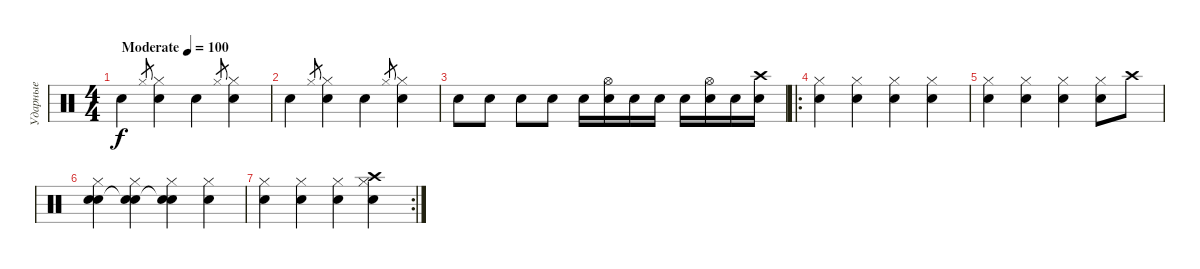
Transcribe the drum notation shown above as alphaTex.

\track ("Ударные" "Ударные") {instrument percussion}
\staff {score}
\articulation defaults
\ts (4 4)
\tempo (100 "Moderate")
\clef neutral
\ks c "Snare (hit) 2".4{dy f} "Hi-Hat (closed)".8{gr}
("Electric Snare (hit)" "Hi-Hat (closed)").4 "Snare (hit) 2".4 "Hi-Hat (closed)".8{gr} ("Electric Snare (hit)" "Hi-Hat (closed)").4 |
"Snare (hit) 2".4 "Hi-Hat (closed)".8{gr} ("Electric Snare (hit)" "Hi-Hat (closed)").4 "Snare (hit) 2".4 "Hi-Hat (closed)".8{gr} ("Electric Snare (hit)" "Hi-Hat (closed)").4 |
"Snare (hit) 2".8 "Snare (hit) 2".8 "Snare (hit) 2".8 "Snare (hit) 2".8 "Electric Snare (hit)".16 ("Electric Snare (hit)" "Hi-Hat (open)").16 "Electric Snare (hit)".16 "Electric Snare (hit)".16 "Snare (hit) 2".16 ("Snare (hit) 2" "Hi-Hat (open)").16 "Snare (hit) 2".16 ("Snare (hit) 2" "Crash high (hit)").16 |
\ro
("Snare (hit) 2" "Hi-Hat (closed)").4 ("Electric Snare (hit)" "Hi-Hat (closed)").4 ("Snare (hit) 2" "Hi-Hat (closed)").4 ("Electric Snare (hit)" "Hi-Hat (closed)").4 |
("Snare (hit) 2" "Hi-Hat (closed)").4 ("Electric Snare (hit)" "Hi-Hat (closed)").4 ("Snare (hit) 2" "Hi-Hat (closed)").4 ("Electric Snare (hit)" "Hi-Hat (closed)").8 "Crash high (hit)".8 |
("Snare (hit) 2" "Hi-Hat (closed)" "Snare (hit)").4 ("Electric Snare (hit)" "Hi-Hat (closed)" "Snare (hit)"{t}).4 ("Snare (hit) 2" "Hi-Hat (closed)" "Snare (hit)"{t}).4 ("Electric Snare (hit)" "Hi-Hat (closed)").4 |
\rc 2
("Snare (hit) 2" "Hi-Hat (closed)").4 ("Electric Snare (hit)" "Hi-Hat (closed)").4 ("Snare (hit) 2" "Hi-Hat (closed)").4 ("Electric Snare (hit)" "Hi-Hat (closed)" "Crash high (hit)").4
